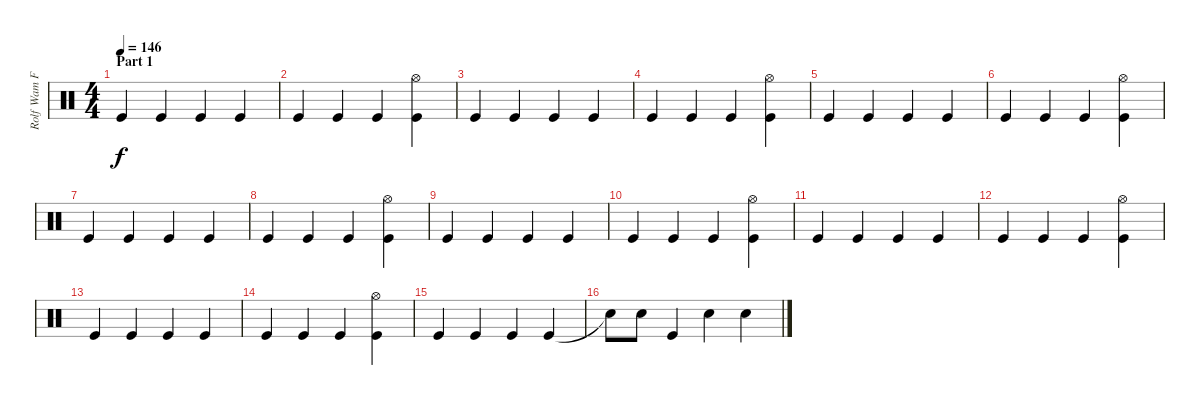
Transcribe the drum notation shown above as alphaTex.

\track ("Rolf Wam Fjell" "Rolf Wam F") {instrument percussion}
\staff {score}
\articulation defaults
\ts (4 4)
\section ("" "Part 1")
\tempo 146
\clef neutral
\ks c "Kick (hit)".4{dy f} "Kick (hit)".4 "Kick (hit)".4 "Kick (hit)".4
|
"Kick (hit)".4 "Kick (hit)".4 "Kick (hit)".4 ("Kick (hit)" "Hi-Hat (open)").4 |
"Kick (hit)".4 "Kick (hit)".4 "Kick (hit)".4 "Kick (hit)".4 |
"Kick (hit)".4 "Kick (hit)".4 "Kick (hit)".4 ("Kick (hit)" "Hi-Hat (open)").4 |
"Kick (hit)".4 "Kick (hit)".4 "Kick (hit)".4 "Kick (hit)".4 |
"Kick (hit)".4 "Kick (hit)".4 "Kick (hit)".4 ("Kick (hit)" "Hi-Hat (open)").4 |
"Kick (hit)".4 "Kick (hit)".4 "Kick (hit)".4 "Kick (hit)".4 |
"Kick (hit)".4 "Kick (hit)".4 "Kick (hit)".4 ("Kick (hit)" "Hi-Hat (open)").4 |
"Kick (hit)".4 "Kick (hit)".4 "Kick (hit)".4 "Kick (hit)".4 |
"Kick (hit)".4 "Kick (hit)".4 "Kick (hit)".4 ("Kick (hit)" "Hi-Hat (open)").4 |
"Kick (hit)".4 "Kick (hit)".4 "Kick (hit)".4 "Kick (hit)".4 |
"Kick (hit)".4 "Kick (hit)".4 "Kick (hit)".4 ("Kick (hit)" "Hi-Hat (open)").4 |
"Kick (hit)".4 "Kick (hit)".4 "Kick (hit)".4 "Kick (hit)".4 |
"Kick (hit)".4 "Kick (hit)".4 "Kick (hit)".4 ("Kick (hit)" "Hi-Hat (open)").4 |
"Kick (hit)".4 "Kick (hit)".4 "Kick (hit)".4 "Kick (hit)".4 |
"Electric Snare (hit)"{t}.8 "Electric Snare (hit)".8 "Kick (hit)".4 "Electric Snare (hit)".4 "Electric Snare (hit)".4
